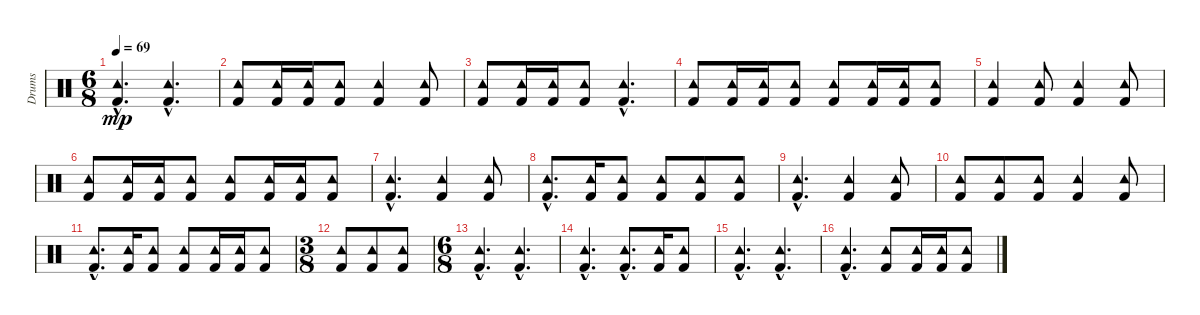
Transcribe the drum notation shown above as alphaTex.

\track ("Drums" "Drums") {instrument percussion}
\staff {score}
\articulation defaults
\ts (6 8)
\tempo 69
\clef neutral
\ks c
("Tambourine (hit)"{hac} "Kick (hit) 2"{hac}).4{d dy mp} ("Tambourine (hit)"{hac} "Kick (hit) 2"{hac}).4{d} |
("Tambourine (hit)" "Kick (hit) 2").8 ("Tambourine (hit)" "Kick (hit) 2").16 ("Tambourine (hit)" "Kick (hit) 2").16 ("Tambourine (hit)" "Kick (hit) 2").8 ("Tambourine (hit)" "Kick (hit) 2").4 ("Tambourine (hit)" "Kick (hit) 2").8 |
("Tambourine (hit)" "Kick (hit) 2").8 ("Tambourine (hit)" "Kick (hit) 2").16 ("Tambourine (hit)" "Kick (hit) 2").16 ("Tambourine (hit)" "Kick (hit) 2").8 ("Tambourine (hit)"{hac} "Kick (hit) 2"{hac}).4{d} |
("Tambourine (hit)" "Kick (hit) 2").8 ("Tambourine (hit)" "Kick (hit) 2").16 ("Tambourine (hit)" "Kick (hit) 2").16 ("Tambourine (hit)" "Kick (hit) 2").8 ("Tambourine (hit)" "Kick (hit) 2").8 ("Tambourine (hit)" "Kick (hit) 2").16 ("Tambourine (hit)" "Kick (hit) 2").16 ("Tambourine (hit)" "Kick (hit) 2").8 |
("Tambourine (hit)" "Kick (hit) 2").4 ("Tambourine (hit)" "Kick (hit) 2").8 ("Tambourine (hit)" "Kick (hit) 2").4 ("Tambourine (hit)" "Kick (hit) 2").8 |
("Tambourine (hit)" "Kick (hit) 2").8 ("Tambourine (hit)" "Kick (hit) 2").16 ("Tambourine (hit)" "Kick (hit) 2").16 ("Tambourine (hit)" "Kick (hit) 2").8 ("Tambourine (hit)" "Kick (hit) 2").8 ("Tambourine (hit)" "Kick (hit) 2").16 ("Tambourine (hit)" "Kick (hit) 2").16 ("Tambourine (hit)" "Kick (hit) 2").8 |
("Tambourine (hit)"{hac} "Kick (hit) 2"{hac}).4{d} ("Tambourine (hit)" "Kick (hit) 2").4 ("Tambourine (hit)" "Kick (hit) 2").8 |
("Tambourine (hit)"{hac} "Kick (hit) 2"{hac}).8{d} ("Tambourine (hit)" "Kick (hit) 2").16 ("Tambourine (hit)" "Kick (hit) 2").8 ("Tambourine (hit)" "Kick (hit) 2").8 ("Tambourine (hit)" "Kick (hit) 2").8 ("Tambourine (hit)" "Kick (hit) 2").8 |
("Tambourine (hit)"{hac} "Kick (hit) 2"{hac}).4{d} ("Tambourine (hit)" "Kick (hit) 2").4 ("Tambourine (hit)" "Kick (hit) 2").8 |
("Tambourine (hit)" "Kick (hit) 2").8 ("Tambourine (hit)" "Kick (hit) 2").8 ("Tambourine (hit)" "Kick (hit) 2").8 ("Tambourine (hit)" "Kick (hit) 2").4 ("Tambourine (hit)" "Kick (hit) 2").8 |
("Tambourine (hit)"{hac} "Kick (hit) 2"{hac}).8{d} ("Tambourine (hit)" "Kick (hit) 2").16 ("Tambourine (hit)" "Kick (hit) 2").8 ("Tambourine (hit)" "Kick (hit) 2").8 ("Tambourine (hit)" "Kick (hit) 2").16 ("Tambourine (hit)" "Kick (hit) 2").16 ("Tambourine (hit)" "Kick (hit) 2").8 |
\ts (3 8)
("Tambourine (hit)" "Kick (hit) 2").8 ("Tambourine (hit)" "Kick (hit) 2").8 ("Tambourine (hit)" "Kick (hit) 2").8 |
\ts (6 8)
("Tambourine (hit)"{hac} "Kick (hit) 2"{hac}).4{d} ("Tambourine (hit)"{hac} "Kick (hit) 2"{hac}).4{d} |
("Tambourine (hit)"{hac} "Kick (hit) 2"{hac}).4{d} ("Tambourine (hit)"{hac} "Kick (hit) 2"{hac}).8{d} ("Tambourine (hit)" "Kick (hit) 2").16 ("Tambourine (hit)" "Kick (hit) 2").8 |
("Tambourine (hit)"{hac} "Kick (hit) 2"{hac}).4{d} ("Tambourine (hit)"{hac} "Kick (hit) 2"{hac}).4{d} |
("Tambourine (hit)"{hac} "Kick (hit) 2"{hac}).4{d} ("Tambourine (hit)" "Kick (hit) 2").8 ("Tambourine (hit)" "Kick (hit) 2").16 ("Tambourine (hit)" "Kick (hit) 2").16 ("Tambourine (hit)" "Kick (hit) 2").8
